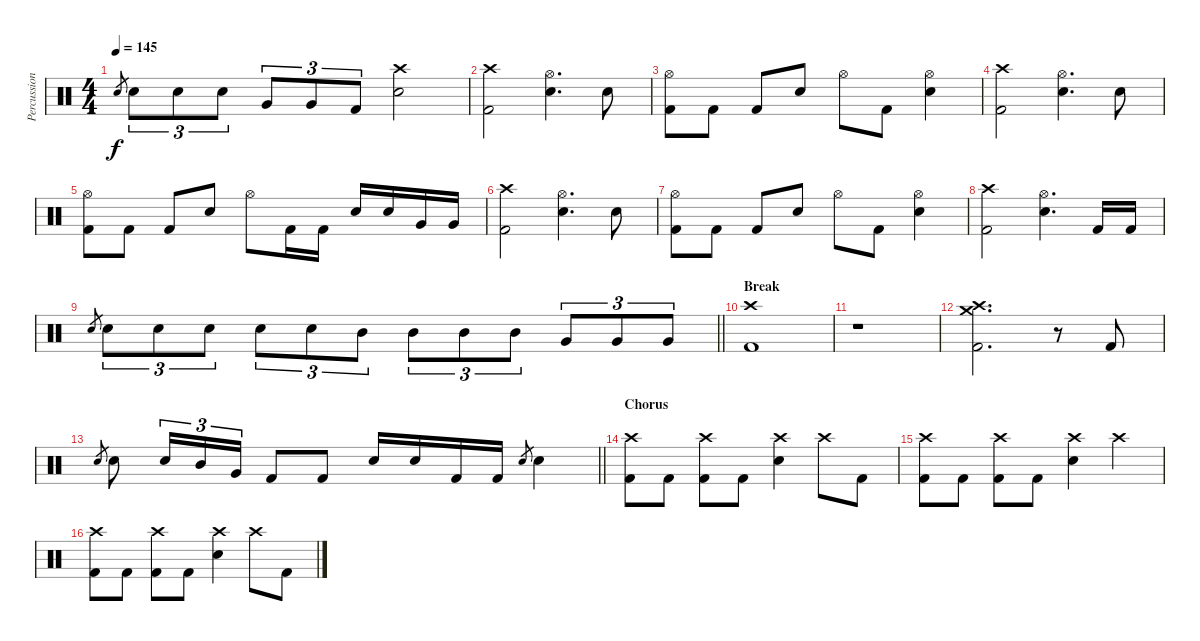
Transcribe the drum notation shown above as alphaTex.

\track ("Percussion" "Percussion") {instrument percussion}
\staff {score}
\articulation defaults
\ts (4 4)
\tempo 145
\clef neutral
\ks c "Snare (hit) 2".8{gr dy f} "Snare (hit) 2".8{tu (3 2)} "Snare (hit) 2".8{tu (3 2)} "Snare (hit) 2".8{tu (3 2)} "Very Low Tom (hit)".8{tu (3 2)} "Very Low Tom (hit)".8{tu (3 2)} "Kick (hit) 2".8{tu (3 2)}
("Crash high (hit)" "Snare (hit) 2").2 |
("Crash high (hit)" "Kick (hit) 2").2 ("Hi-Hat (open)" "Snare (hit) 2").4{d} "Snare (hit) 2".8 |
("Hi-Hat (open)" "Kick (hit) 2").8 "Kick (hit) 2".8 "Kick (hit) 2".8 "Snare (hit) 2".8 "Hi-Hat (open)".8 "Kick (hit) 2".8 ("Hi-Hat (open)" "Snare (hit) 2").4 |
("Crash high (hit)" "Kick (hit) 2").2 ("Hi-Hat (open)" "Snare (hit) 2").4{d} "Snare (hit) 2".8 |
("Hi-Hat (open)" "Kick (hit) 2").8 "Kick (hit) 2".8 "Kick (hit) 2".8 "Snare (hit) 2".8 "Hi-Hat (open)".8 "Kick (hit) 2".16 "Kick (hit) 2".16 "Snare (hit) 2".16 "Snare (hit) 2".16 "Very Low Tom (hit)".16 "Very Low Tom (hit)".16 |
("Crash high (hit)" "Kick (hit) 2").2 ("Hi-Hat (open)" "Snare (hit) 2").4{d} "Snare (hit) 2".8 |
("Hi-Hat (open)" "Kick (hit) 2").8 "Kick (hit) 2".8 "Kick (hit) 2".8 "Snare (hit) 2".8 "Hi-Hat (open)".8 "Kick (hit) 2".8 ("Hi-Hat (open)" "Snare (hit) 2").4 |
("Crash high (hit)" "Kick (hit) 2").2 ("Hi-Hat (open)" "Snare (hit) 2").4{d} "Kick (hit) 2".16 "Kick (hit) 2".16 |
\barLineRight lightlight "Snare (hit) 2".8{gr} "Snare (hit) 2".8{tu (3 2)} "Snare (hit) 2".8{tu (3 2)} "Snare (hit) 2".8{tu (3 2)} "Snare (hit) 2".8{tu (3 2)} "Snare (hit) 2".8{tu (3 2)} "Mid Tom (hit)".8{tu (3 2)} "Mid Tom (hit)".8{tu (3 2)} "Mid Tom (hit)".8{tu (3 2)} "Mid Tom (hit)".8{tu (3 2)} "Very Low Tom (hit)".8{tu (3 2)} "Very Low Tom (hit)".8{tu (3 2)} "Very Low Tom (hit)".8{tu (3 2)}
|
\section ("" "Break")
("Crash high (hit)" "Kick (hit) 2").1 |
r.1 |
("Crash high (hit)" "Crash medium (hit)" "Kick (hit) 2").2{d} r.8 "Kick (hit) 2".8 |
\barLineRight lightlight "Snare (hit) 2".8{gr} "Snare (hit) 2".8 "Snare (hit) 2".16{tu (3 2)} "Mid Tom (hit)".16{tu (3 2)} "Very Low Tom (hit)".16{tu (3 2)} "Kick (hit) 2".8 "Kick (hit) 2".8 "Snare (hit) 2".16 "Snare (hit) 2".16 "Kick (hit) 2".16 "Kick (hit) 2".16 "Snare (hit) 2".8{gr} "Snare (hit) 2".4
|
\section ("" "Chorus")
("Crash high (hit)" "Kick (hit) 2").8 "Kick (hit) 2".8 ("Crash high (hit)" "Kick (hit) 2").8 "Kick (hit) 2".8 ("Crash high (hit)" "Snare (hit) 2").4 "Crash high (hit)".8 "Kick (hit) 2".8 |
("Crash high (hit)" "Kick (hit) 2").8 "Kick (hit) 2".8 ("Crash high (hit)" "Kick (hit) 2").8 "Kick (hit) 2".8 ("Crash high (hit)" "Snare (hit) 2").4 "Crash high (hit)".4 |
("Crash high (hit)" "Kick (hit) 2").8 "Kick (hit) 2".8 ("Crash high (hit)" "Kick (hit) 2").8 "Kick (hit) 2".8 ("Crash high (hit)" "Snare (hit) 2").4 "Crash high (hit)".8 "Kick (hit) 2".8
